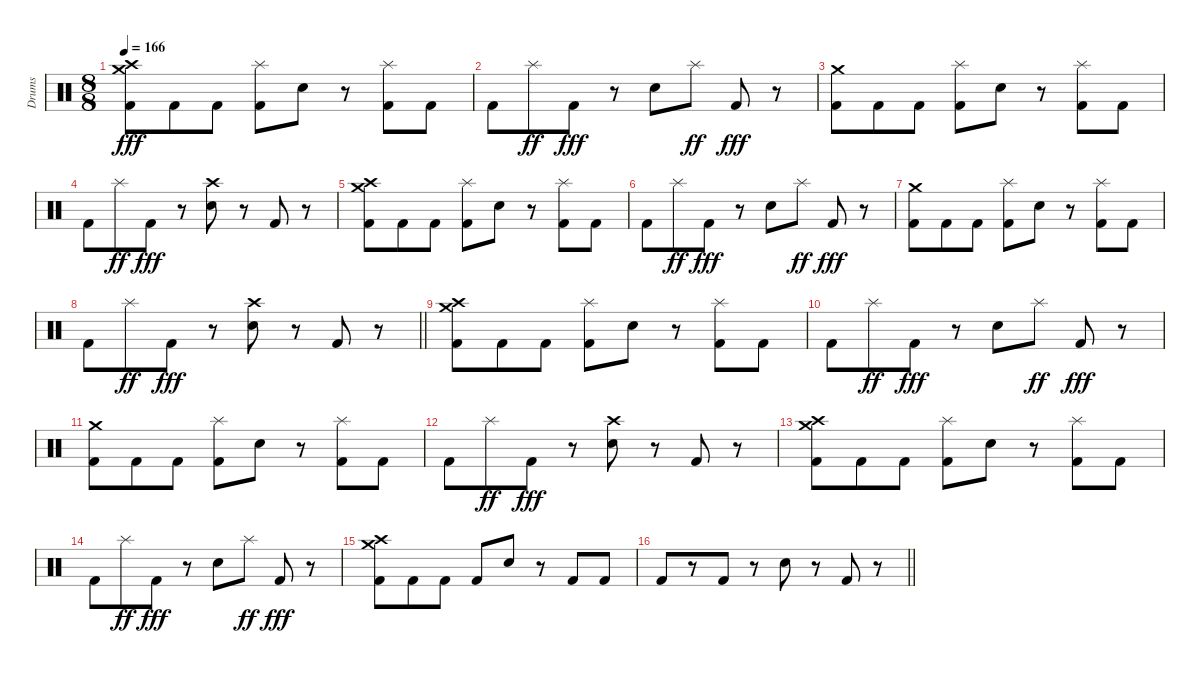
\track ("Drums" "Drums") {instrument percussion}
\staff {score}
\articulation defaults
\ts (8 8)
\section ("" "")
\tempo 166
\clef neutral
\ks c
("Crash high (hit)" "Crash medium (hit)" "Kick (hit) 2").8{dy fff} "Kick (hit) 2".8 "Kick (hit) 2".8 ("Splash (hit)" "Kick (hit) 2").8 "Electric Snare (hit)".8 r.8 ("Splash (hit)" "Kick (hit) 2").8 "Kick (hit) 2".8 |
"Kick (hit) 2".8 "Splash (hit)".8{dy ff} "Kick (hit) 2".8{dy fff} r.8 "Electric Snare (hit)".8 "Splash (hit)".8{dy ff} "Kick (hit) 2".8{dy fff} r.8 |
("Crash medium (hit)" "Kick (hit) 2").8 "Kick (hit) 2".8 "Kick (hit) 2".8 ("Splash (hit)" "Kick (hit) 2").8 "Electric Snare (hit)".8 r.8 ("Splash (hit)" "Kick (hit) 2").8 "Kick (hit) 2".8 |
"Kick (hit) 2".8 "Splash (hit)".8{dy ff} "Kick (hit) 2".8{dy fff} r.8 ("Crash high (hit)" "Electric Snare (hit)").8 r.8 "Kick (hit) 2".8 r.8 |
("Crash high (hit)" "Crash medium (hit)" "Kick (hit) 2").8 "Kick (hit) 2".8 "Kick (hit) 2".8 ("Splash (hit)" "Kick (hit) 2").8 "Electric Snare (hit)".8 r.8 ("Splash (hit)" "Kick (hit) 2").8 "Kick (hit) 2".8 |
"Kick (hit) 2".8 "Splash (hit)".8{dy ff} "Kick (hit) 2".8{dy fff} r.8 "Electric Snare (hit)".8 "Splash (hit)".8{dy ff} "Kick (hit) 2".8{dy fff} r.8 |
("Crash medium (hit)" "Kick (hit) 2").8 "Kick (hit) 2".8 "Kick (hit) 2".8 ("Splash (hit)" "Kick (hit) 2").8 "Electric Snare (hit)".8 r.8 ("Splash (hit)" "Kick (hit) 2").8 "Kick (hit) 2".8 |
\barLineRight lightlight "Kick (hit) 2".8 "Splash (hit)".8{dy ff} "Kick (hit) 2".8{dy fff}
r.8 ("Crash high (hit)" "Electric Snare (hit)").8 r.8 "Kick (hit) 2".8 r.8 |
\section ("" "")
("Crash high (hit)" "Crash medium (hit)" "Kick (hit) 2").8 "Kick (hit) 2".8 "Kick (hit) 2".8 ("Splash (hit)" "Kick (hit) 2").8 "Electric Snare (hit)".8 r.8 ("Splash (hit)" "Kick (hit) 2").8 "Kick (hit) 2".8 |
"Kick (hit) 2".8 "Splash (hit)".8{dy ff} "Kick (hit) 2".8{dy fff} r.8 "Electric Snare (hit)".8 "Splash (hit)".8{dy ff} "Kick (hit) 2".8{dy fff} r.8 |
("Crash medium (hit)" "Kick (hit) 2").8 "Kick (hit) 2".8 "Kick (hit) 2".8 ("Splash (hit)" "Kick (hit) 2").8 "Electric Snare (hit)".8 r.8 ("Splash (hit)" "Kick (hit) 2").8 "Kick (hit) 2".8 |
"Kick (hit) 2".8 "Splash (hit)".8{dy ff} "Kick (hit) 2".8{dy fff} r.8 ("Crash high (hit)" "Electric Snare (hit)").8 r.8 "Kick (hit) 2".8 r.8 |
("Crash high (hit)" "Crash medium (hit)" "Kick (hit) 2").8 "Kick (hit) 2".8 "Kick (hit) 2".8 ("Splash (hit)" "Kick (hit) 2").8 "Electric Snare (hit)".8 r.8 ("Splash (hit)" "Kick (hit) 2").8 "Kick (hit) 2".8 |
"Kick (hit) 2".8 "Splash (hit)".8{dy ff} "Kick (hit) 2".8{dy fff} r.8 "Electric Snare (hit)".8 "Splash (hit)".8{dy ff} "Kick (hit) 2".8{dy fff} r.8 |
("Crash high (hit)" "Crash medium (hit)" "Kick (hit) 2").8 "Kick (hit) 2".8 "Kick (hit) 2".8 "Kick (hit) 2".8 "Electric Snare (hit)".8 r.8 "Kick (hit) 2".8 "Kick (hit) 2".8 |
\barLineRight lightlight "Kick (hit) 2".8
r.8 "Kick (hit) 2".8 r.8 "Electric Snare (hit)".8 r.8 "Kick (hit) 2".8 r.8
